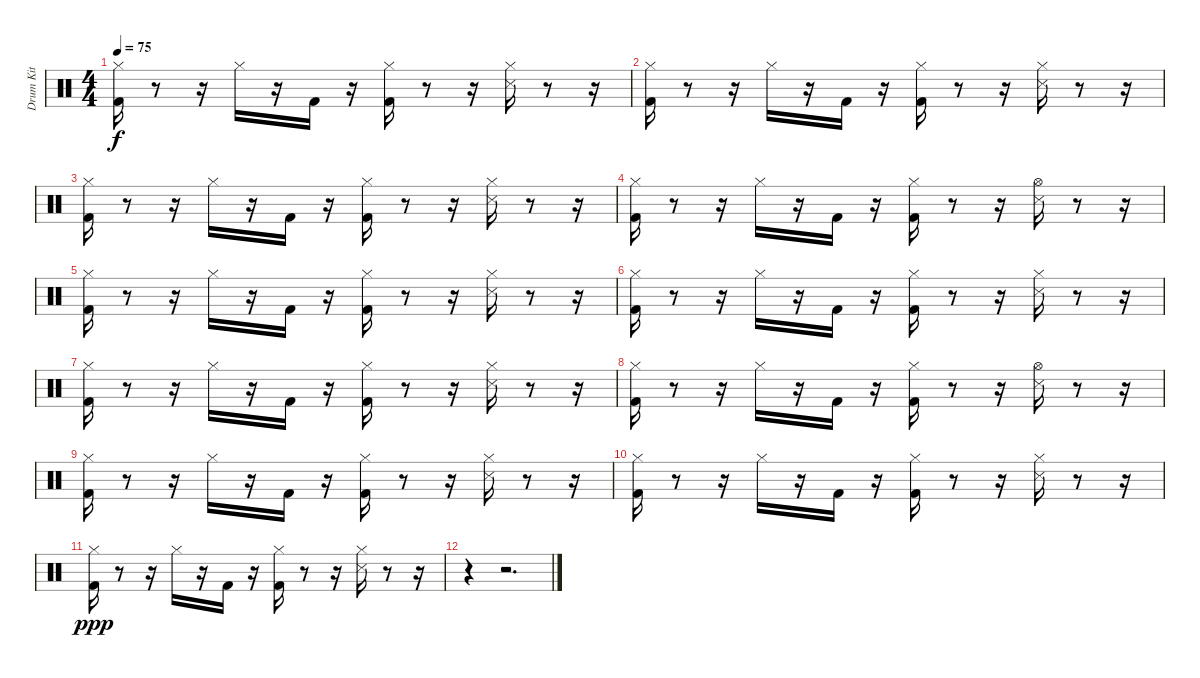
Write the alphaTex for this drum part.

\track ("Drum Kit" "Drum Kit") {instrument percussion}
\staff {score}
\articulation defaults
\ts (4 4)
\tempo 75
\clef neutral
\ks c
("Hi-Hat (closed)" "Kick (hit) 2").16{dy f} r.8 r.16 "Hi-Hat (closed)".16 r.16 "Kick (hit) 2".16 r.16 ("Kick (hit) 2" "Hi-Hat (closed)").16 r.8 r.16 ("Snare (side stick) 3" "Hi-Hat (closed)").16 r.8 r.16 |
("Kick (hit) 2" "Hi-Hat (closed)").16 r.8 r.16 "Hi-Hat (closed)".16 r.16 "Kick (hit) 2".16 r.16 ("Kick (hit) 2" "Hi-Hat (closed)").16 r.8 r.16 ("Snare (side stick) 3" "Hi-Hat (closed)").16 r.8 r.16 |
("Hi-Hat (closed)" "Kick (hit) 2").16 r.8 r.16 "Hi-Hat (closed)".16 r.16 "Kick (hit) 2".16 r.16 ("Kick (hit) 2" "Hi-Hat (closed)").16 r.8 r.16 ("Snare (side stick) 3" "Hi-Hat (closed)").16 r.8 r.16 |
("Hi-Hat (closed)" "Kick (hit) 2").16 r.8 r.16 "Hi-Hat (closed)".16 r.16 "Kick (hit) 2".16 r.16 ("Kick (hit) 2" "Hi-Hat (closed)").16 r.8 r.16 ("Snare (side stick) 3" "Hi-Hat (open)").16 r.8 r.16 |
("Hi-Hat (closed)" "Kick (hit) 2").16 r.8 r.16 "Hi-Hat (closed)".16 r.16 "Kick (hit) 2".16 r.16 ("Kick (hit) 2" "Hi-Hat (closed)").16 r.8 r.16 ("Snare (side stick) 3" "Hi-Hat (closed)").16 r.8 r.16 |
("Kick (hit) 2" "Hi-Hat (closed)").16 r.8 r.16 "Hi-Hat (closed)".16 r.16 "Kick (hit) 2".16 r.16 ("Kick (hit) 2" "Hi-Hat (closed)").16 r.8 r.16 ("Snare (side stick) 3" "Hi-Hat (closed)").16 r.8 r.16 |
("Hi-Hat (closed)" "Kick (hit) 2").16 r.8 r.16 "Hi-Hat (closed)".16 r.16 "Kick (hit) 2".16 r.16 ("Kick (hit) 2" "Hi-Hat (closed)").16 r.8 r.16 ("Snare (side stick) 3" "Hi-Hat (closed)").16 r.8 r.16 |
("Hi-Hat (closed)" "Kick (hit) 2").16 r.8 r.16 "Hi-Hat (closed)".16 r.16 "Kick (hit) 2".16 r.16 ("Kick (hit) 2" "Hi-Hat (closed)").16 r.8 r.16 ("Snare (side stick) 3" "Hi-Hat (open)").16 r.8 r.16 |
("Hi-Hat (closed)" "Kick (hit) 2").16 r.8 r.16 "Hi-Hat (closed)".16 r.16 "Kick (hit) 2".16 r.16 ("Kick (hit) 2" "Hi-Hat (closed)").16 r.8 r.16 ("Snare (side stick) 3" "Hi-Hat (closed)").16 r.8 r.16 |
("Kick (hit) 2" "Hi-Hat (closed)").16 r.8 r.16 "Hi-Hat (closed)".16 r.16 "Kick (hit) 2".16 r.16 ("Kick (hit) 2" "Hi-Hat (closed)").16 r.8 r.16 ("Snare (side stick) 3" "Hi-Hat (closed)").16 r.8 r.16 |
("Hi-Hat (closed)" "Kick (hit) 2").16{dy ppp} r.8 r.16 "Hi-Hat (closed)".16 r.16 "Kick (hit) 2".16 r.16 ("Kick (hit) 2" "Hi-Hat (closed)").16 r.8 r.16 ("Snare (side stick) 3" "Hi-Hat (closed)").16 r.8 r.16 |
r.4 r.2{d}
